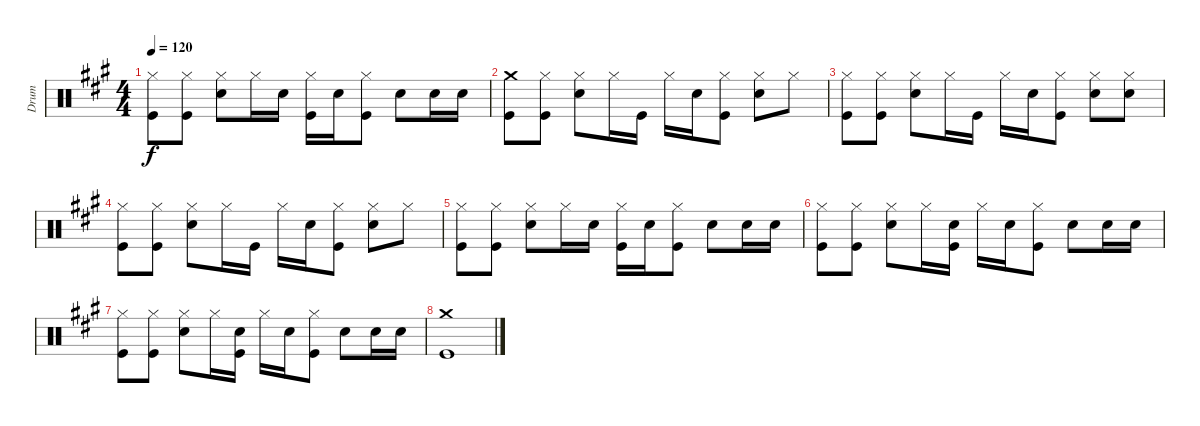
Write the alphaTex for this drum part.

\track ("Drum" "Drum") {instrument percussion}
\staff {score}
\articulation defaults
\ts (4 4)
\tempo 120
\clef neutral
\ks a
("Hi-Hat (closed)" "Kick (hit)").8{dy f} ("Hi-Hat (closed)" "Kick (hit)").8 ("Hi-Hat (closed)" "Snare (hit) 2").8 "Hi-Hat (closed)".16 "Snare (hit) 2".16 ("Hi-Hat (closed)" "Kick (hit)").16 "Snare (hit) 2".16 ("Hi-Hat (closed)" "Kick (hit)").8 "Snare (hit) 2".8 "Snare (hit) 2".16 "Snare (hit) 2".16 |
("Crash medium (hit)" "Kick (hit)").8 ("Hi-Hat (closed)" "Kick (hit)").8 ("Hi-Hat (closed)" "Snare (hit) 2").8 "Hi-Hat (closed)".16 "Kick (hit)".16 "Hi-Hat (closed)".16 "Snare (hit) 2".16 ("Hi-Hat (closed)" "Kick (hit)").8 ("Hi-Hat (closed)" "Snare (hit) 2").8 "Hi-Hat (closed)".8 |
("Hi-Hat (closed)" "Kick (hit)").8 ("Hi-Hat (closed)" "Kick (hit)").8 ("Hi-Hat (closed)" "Snare (hit) 2").8 "Hi-Hat (closed)".16 "Kick (hit)".16 "Hi-Hat (closed)".16 "Snare (hit) 2".16 ("Hi-Hat (closed)" "Kick (hit)").8 ("Hi-Hat (closed)" "Snare (hit) 2").8 ("Hi-Hat (closed)" "Snare (hit) 2").8 |
("Hi-Hat (closed)" "Kick (hit)").8 ("Hi-Hat (closed)" "Kick (hit)").8 ("Hi-Hat (closed)" "Snare (hit) 2").8 "Hi-Hat (closed)".16 "Kick (hit)".16 "Hi-Hat (closed)".16 "Snare (hit) 2".16 ("Hi-Hat (closed)" "Kick (hit)").8 ("Hi-Hat (closed)" "Snare (hit) 2").8 "Hi-Hat (closed)".8 |
("Hi-Hat (closed)" "Kick (hit)").8 ("Hi-Hat (closed)" "Kick (hit)").8 ("Hi-Hat (closed)" "Snare (hit) 2").8 "Hi-Hat (closed)".16 "Snare (hit) 2".16 ("Hi-Hat (closed)" "Kick (hit)").16 "Snare (hit) 2".16 ("Hi-Hat (closed)" "Kick (hit)").8 "Snare (hit) 2".8 "Snare (hit) 2".16 "Snare (hit) 2".16 |
("Hi-Hat (closed)" "Kick (hit)").8 ("Hi-Hat (closed)" "Kick (hit)").8 ("Hi-Hat (closed)" "Snare (hit) 2").8 "Hi-Hat (closed)".16 ("Snare (hit) 2" "Kick (hit)").16 "Hi-Hat (closed)".16 "Snare (hit) 2".16 ("Hi-Hat (closed)" "Kick (hit)").8 "Snare (hit) 2".8 "Snare (hit) 2".16 "Snare (hit) 2".16 |
("Hi-Hat (closed)" "Kick (hit)").8 ("Hi-Hat (closed)" "Kick (hit)").8 ("Hi-Hat (closed)" "Snare (hit) 2").8 "Hi-Hat (closed)".16 ("Snare (hit) 2" "Kick (hit)").16 "Hi-Hat (closed)".16 "Snare (hit) 2".16 ("Hi-Hat (closed)" "Kick (hit)").8 "Snare (hit) 2".8 "Snare (hit) 2".16 "Snare (hit) 2".16 |
("Crash medium (hit)" "Kick (hit)").1
